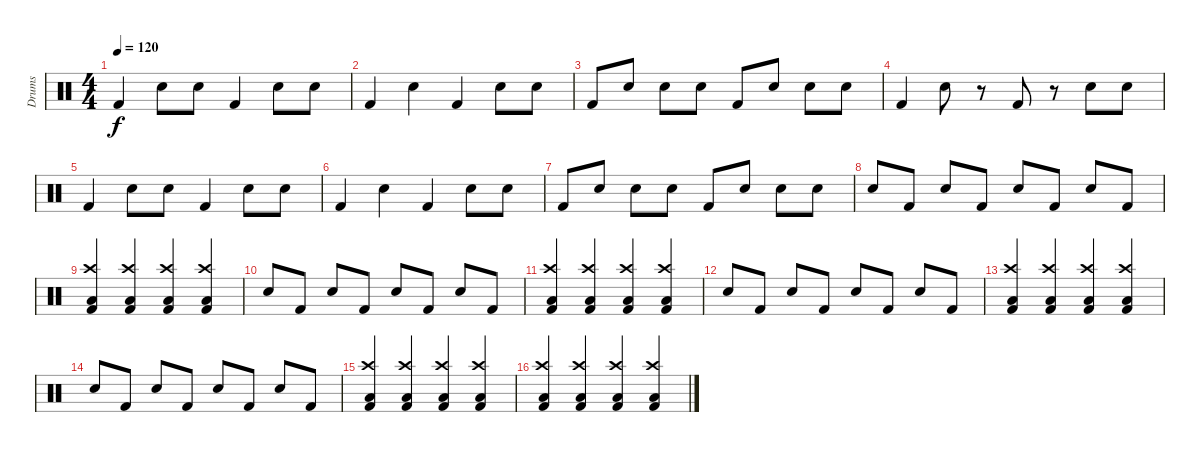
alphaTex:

\track ("Drums" "Drums") {instrument percussion}
\staff {score}
\articulation defaults
\ts (4 4)
\tempo 120
\clef neutral
\ks c "Kick (hit) 2".4{dy f} "Snare (hit) 2".8 "Snare (hit) 2".8 "Kick (hit) 2".4 "Snare (hit) 2".8 "Snare (hit) 2".8
|
"Kick (hit) 2".4 "Snare (hit) 2".4 "Kick (hit) 2".4 "Snare (hit) 2".8 "Snare (hit) 2".8 |
"Kick (hit) 2".8 "Snare (hit) 2".8 "Snare (hit) 2".8 "Snare (hit) 2".8 "Kick (hit) 2".8 "Snare (hit) 2".8 "Snare (hit) 2".8 "Snare (hit) 2".8 |
"Kick (hit) 2".4 "Snare (hit) 2".8 r.8 "Kick (hit) 2".8 r.8 "Snare (hit) 2".8 "Snare (hit) 2".8 |
"Kick (hit) 2".4 "Snare (hit) 2".8 "Snare (hit) 2".8 "Kick (hit) 2".4 "Snare (hit) 2".8 "Snare (hit) 2".8 |
"Kick (hit) 2".4 "Snare (hit) 2".4 "Kick (hit) 2".4 "Snare (hit) 2".8 "Snare (hit) 2".8 |
"Kick (hit) 2".8 "Snare (hit) 2".8 "Snare (hit) 2".8 "Snare (hit) 2".8 "Kick (hit) 2".8 "Snare (hit) 2".8 "Snare (hit) 2".8 "Snare (hit) 2".8 |
"Snare (hit) 2".8 "Kick (hit) 2".8 "Snare (hit) 2".8 "Kick (hit) 2".8 "Snare (hit) 2".8 "Kick (hit) 2".8 "Snare (hit) 2".8 "Kick (hit) 2".8 |
("Crash high (hit)" "Kick (hit) 2" "Low Tom (hit)").4 ("Crash high (hit)" "Kick (hit) 2" "Low Tom (hit)").4 ("Crash high (hit)" "Kick (hit) 2" "Low Tom (hit)").4 ("Crash high (hit)" "Kick (hit) 2" "Low Tom (hit)").4 |
"Snare (hit) 2".8 "Kick (hit) 2".8 "Snare (hit) 2".8 "Kick (hit) 2".8 "Snare (hit) 2".8 "Kick (hit) 2".8 "Snare (hit) 2".8 "Kick (hit) 2".8 |
("Crash high (hit)" "Kick (hit) 2" "Low Tom (hit)").4 ("Crash high (hit)" "Kick (hit) 2" "Low Tom (hit)").4 ("Crash high (hit)" "Kick (hit) 2" "Low Tom (hit)").4 ("Crash high (hit)" "Kick (hit) 2" "Low Tom (hit)").4 |
"Snare (hit) 2".8 "Kick (hit) 2".8 "Snare (hit) 2".8 "Kick (hit) 2".8 "Snare (hit) 2".8 "Kick (hit) 2".8 "Snare (hit) 2".8 "Kick (hit) 2".8 |
("Crash high (hit)" "Kick (hit) 2" "Low Tom (hit)").4 ("Crash high (hit)" "Kick (hit) 2" "Low Tom (hit)").4 ("Crash high (hit)" "Kick (hit) 2" "Low Tom (hit)").4 ("Crash high (hit)" "Kick (hit) 2" "Low Tom (hit)").4 |
"Snare (hit) 2".8 "Kick (hit) 2".8 "Snare (hit) 2".8 "Kick (hit) 2".8 "Snare (hit) 2".8 "Kick (hit) 2".8 "Snare (hit) 2".8 "Kick (hit) 2".8 |
("Crash high (hit)" "Kick (hit) 2" "Low Tom (hit)").4 ("Crash high (hit)" "Kick (hit) 2" "Low Tom (hit)").4 ("Crash high (hit)" "Kick (hit) 2" "Low Tom (hit)").4 ("Crash high (hit)" "Kick (hit) 2" "Low Tom (hit)").4 |
("Crash high (hit)" "Kick (hit) 2" "Low Tom (hit)").4 ("Crash high (hit)" "Kick (hit) 2" "Low Tom (hit)").4 ("Crash high (hit)" "Kick (hit) 2" "Low Tom (hit)").4 ("Crash high (hit)" "Kick (hit) 2" "Low Tom (hit)").4
